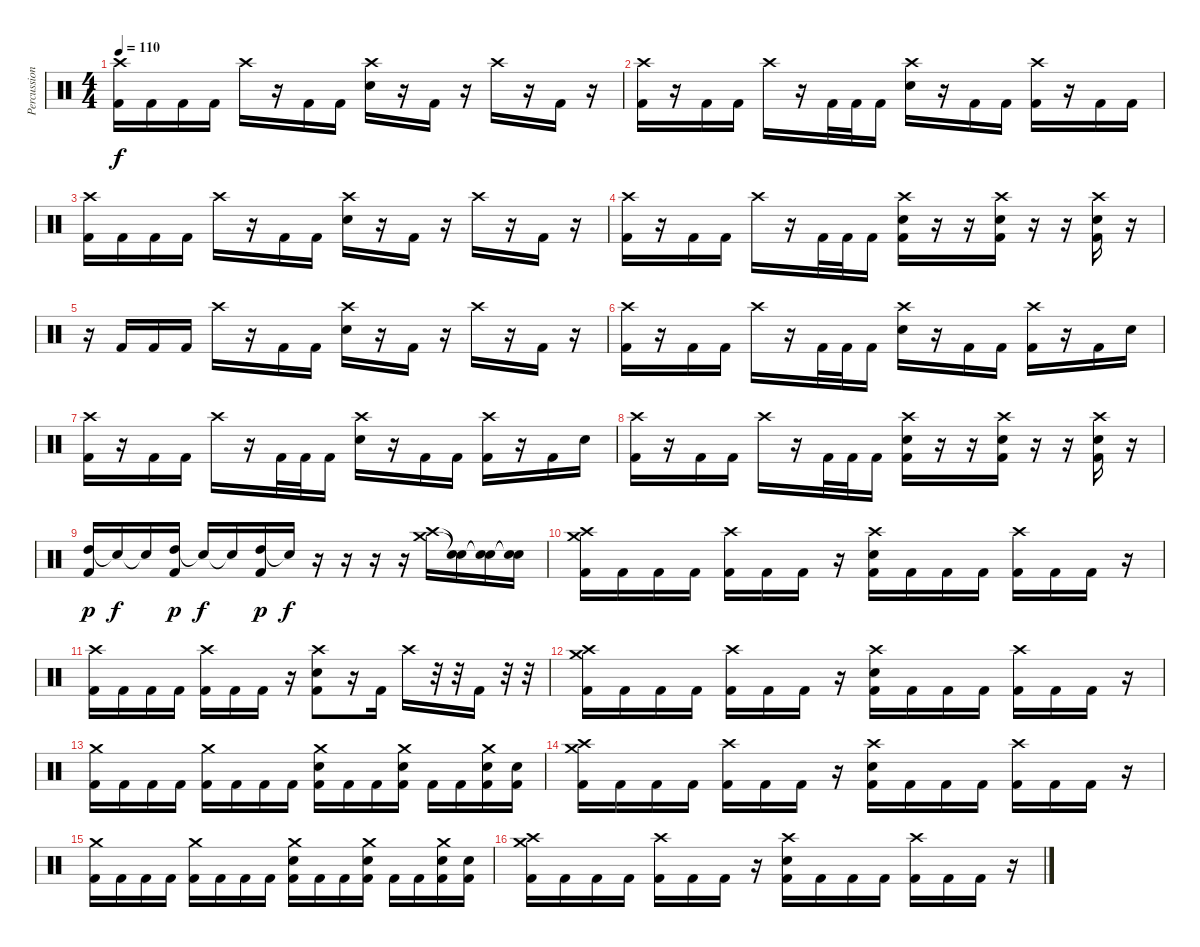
\track ("Percussion" "Percussion") {instrument percussion}
\staff {score}
\articulation defaults
\ts (4 4)
\tempo 110
\clef neutral
\ks c
("Crash high (hit)" "Kick (hit) 2").16{dy f} "Kick (hit) 2".16 "Kick (hit) 2".16 "Kick (hit) 2".16 "Crash high (hit)".16 r.16 "Kick (hit) 2".16 "Kick (hit) 2".16 ("Crash high (hit)" "Snare (hit) 2").16 r.16 "Kick (hit) 2".16 r.16 "Crash high (hit)".16 r.16 "Kick (hit) 2".16 r.16 |
("Crash high (hit)" "Kick (hit) 2").16 r.16 "Kick (hit) 2".16 "Kick (hit) 2".16 "Crash high (hit)".16 r.16 "Kick (hit) 2".32 "Kick (hit) 2".32 "Kick (hit) 2".16 ("Crash high (hit)" "Snare (hit) 2").16 r.16 "Kick (hit) 2".16 "Kick (hit) 2".16 ("Crash high (hit)" "Kick (hit) 2").16 r.16 "Kick (hit) 2".16 "Kick (hit) 2".16 |
("Crash high (hit)" "Kick (hit) 2").16 "Kick (hit) 2".16 "Kick (hit) 2".16 "Kick (hit) 2".16 "Crash high (hit)".16 r.16 "Kick (hit) 2".16 "Kick (hit) 2".16 ("Crash high (hit)" "Snare (hit) 2").16 r.16 "Kick (hit) 2".16 r.16 "Crash high (hit)".16 r.16 "Kick (hit) 2".16 r.16 |
("Crash high (hit)" "Kick (hit) 2").16 r.16 "Kick (hit) 2".16 "Kick (hit) 2".16 "Crash high (hit)".16 r.16 "Kick (hit) 2".32 "Kick (hit) 2".32 "Kick (hit) 2".16 ("Crash high (hit)" "Snare (hit) 2" "Kick (hit) 2").16 r.16 r.16 ("Crash high (hit)" "Snare (hit) 2" "Kick (hit) 2").16 r.16 r.16 ("Crash high (hit)" "Snare (hit) 2" "Kick (hit) 2").16 r.16 |
r.16 "Kick (hit) 2".16 "Kick (hit) 2".16 "Kick (hit) 2".16 "Crash high (hit)".16 r.16 "Kick (hit) 2".16 "Kick (hit) 2".16 ("Crash high (hit)" "Snare (hit) 2").16 r.16 "Kick (hit) 2".16 r.16 "Crash high (hit)".16 r.16 "Kick (hit) 2".16 r.16 |
("Crash high (hit)" "Kick (hit) 2").16 r.16 "Kick (hit) 2".16 "Kick (hit) 2".16 "Crash high (hit)".16 r.16 "Kick (hit) 2".32 "Kick (hit) 2".32 "Kick (hit) 2".16 ("Crash high (hit)" "Snare (hit) 2").16 r.16 "Kick (hit) 2".16 "Kick (hit) 2".16 ("Crash high (hit)" "Kick (hit) 2").16 r.16 "Kick (hit) 2".16 "Snare (hit) 2".16 |
("Crash high (hit)" "Kick (hit) 2").16 r.16 "Kick (hit) 2".16 "Kick (hit) 2".16 "Crash high (hit)".16 r.16 "Kick (hit) 2".32 "Kick (hit) 2".32 "Kick (hit) 2".16 ("Crash high (hit)" "Snare (hit) 2").16 r.16 "Kick (hit) 2".16 "Kick (hit) 2".16 ("Crash high (hit)" "Kick (hit) 2").16 r.16 "Kick (hit) 2".16 "Snare (hit) 2".16 |
("Crash high (hit)" "Kick (hit) 2").16 r.16 "Kick (hit) 2".16 "Kick (hit) 2".16 "Crash high (hit)".16 r.16 "Kick (hit) 2".32 "Kick (hit) 2".32 "Kick (hit) 2".16 ("Crash high (hit)" "Snare (hit) 2" "Kick (hit) 2").16 r.16 r.16 ("Crash high (hit)" "Snare (hit) 2" "Kick (hit) 2").16 r.16 r.16 ("Crash high (hit)" "Snare (hit) 2" "Kick (hit) 2").16 r.16 |
("High Tom (hit)" "Kick (hit) 2").16{dy p} "Snare (hit)"{t}.16{dy f} "Snare (hit)"{t}.16 ("High Tom (hit)" "Kick (hit) 2").16{dy p} "Snare (hit)"{t}.16{dy f} "Snare (hit)"{t}.16 ("High Tom (hit)" "Kick (hit) 2").16{dy p} "Snare (hit)"{t}.16{dy f} r.16 r.16 r.16 r.16 ("Crash medium (hit)" "Crash high (hit)").16 ("Snare (hit)"{t} "Snare (hit)"{t}).16 ("Snare (hit)"{t} "Snare (hit)"{t}).16 ("Snare (hit)"{t} "Snare (hit)"{t}).16 |
("Crash high (hit)" "Crash medium (hit)" "Kick (hit) 2").16 "Kick (hit) 2".16 "Kick (hit) 2".16 "Kick (hit) 2".16 ("Crash high (hit)" "Kick (hit) 2").16 "Kick (hit) 2".16 "Kick (hit) 2".16 r.16 ("Crash high (hit)" "Snare (hit) 2" "Kick (hit) 2").16 "Kick (hit) 2".16 "Kick (hit) 2".16 "Kick (hit) 2".16 ("Crash high (hit)" "Kick (hit) 2").16 "Kick (hit) 2".16 "Kick (hit) 2".16 r.16 |
("Crash high (hit)" "Kick (hit) 2").16 "Kick (hit) 2".16 "Kick (hit) 2".16 "Kick (hit) 2".16 ("Crash high (hit)" "Kick (hit) 2").16 "Kick (hit) 2".16 "Kick (hit) 2".16 r.16 ("Crash high (hit)" "Snare (hit) 2" "Kick (hit) 2").8 r.16 "Kick (hit) 2".16 "Crash high (hit)".16 r.32 r.32 "Kick (hit) 2".16 r.32 r.32 |
("Crash high (hit)" "Crash medium (hit)" "Kick (hit) 2").16 "Kick (hit) 2".16 "Kick (hit) 2".16 "Kick (hit) 2".16 ("Crash high (hit)" "Kick (hit) 2").16 "Kick (hit) 2".16 "Kick (hit) 2".16 r.16 ("Crash high (hit)" "Snare (hit) 2" "Kick (hit) 2").16 "Kick (hit) 2".16 "Kick (hit) 2".16 "Kick (hit) 2".16 ("Crash high (hit)" "Kick (hit) 2").16 "Kick (hit) 2".16 "Kick (hit) 2".16 r.16 |
("Crash medium (hit)" "Kick (hit) 2").16 "Kick (hit) 2".16 "Kick (hit) 2".16 "Kick (hit) 2".16 ("Crash medium (hit)" "Kick (hit) 2").16 "Kick (hit) 2".16 "Kick (hit) 2".16 "Kick (hit) 2".16 ("Crash medium (hit)" "Snare (hit) 2" "Kick (hit) 2").16 "Kick (hit) 2".16 "Kick (hit) 2".16 ("Crash medium (hit)" "Snare (hit) 2" "Kick (hit) 2").16 "Kick (hit) 2".16 "Kick (hit) 2".16 ("Crash medium (hit)" "Snare (hit) 2" "Kick (hit) 2").16 ("Snare (hit) 2" "Kick (hit) 2").16 |
("Crash high (hit)" "Crash medium (hit)" "Kick (hit) 2").16 "Kick (hit) 2".16 "Kick (hit) 2".16 "Kick (hit) 2".16 ("Crash high (hit)" "Kick (hit) 2").16 "Kick (hit) 2".16 "Kick (hit) 2".16 r.16 ("Crash high (hit)" "Snare (hit) 2" "Kick (hit) 2").16 "Kick (hit) 2".16 "Kick (hit) 2".16 "Kick (hit) 2".16 ("Crash high (hit)" "Kick (hit) 2").16 "Kick (hit) 2".16 "Kick (hit) 2".16 r.16 |
("Crash medium (hit)" "Kick (hit) 2").16 "Kick (hit) 2".16 "Kick (hit) 2".16 "Kick (hit) 2".16 ("Crash medium (hit)" "Kick (hit) 2").16 "Kick (hit) 2".16 "Kick (hit) 2".16 "Kick (hit) 2".16 ("Crash medium (hit)" "Snare (hit) 2" "Kick (hit) 2").16 "Kick (hit) 2".16 "Kick (hit) 2".16 ("Crash medium (hit)" "Snare (hit) 2" "Kick (hit) 2").16 "Kick (hit) 2".16 "Kick (hit) 2".16 ("Crash medium (hit)" "Snare (hit) 2" "Kick (hit) 2").16 ("Snare (hit) 2" "Kick (hit) 2").16 |
("Crash high (hit)" "Crash medium (hit)" "Kick (hit) 2").16 "Kick (hit) 2".16 "Kick (hit) 2".16 "Kick (hit) 2".16 ("Crash high (hit)" "Kick (hit) 2").16 "Kick (hit) 2".16 "Kick (hit) 2".16 r.16 ("Crash high (hit)" "Snare (hit) 2" "Kick (hit) 2").16 "Kick (hit) 2".16 "Kick (hit) 2".16 "Kick (hit) 2".16 ("Crash high (hit)" "Kick (hit) 2").16 "Kick (hit) 2".16 "Kick (hit) 2".16 r.16
